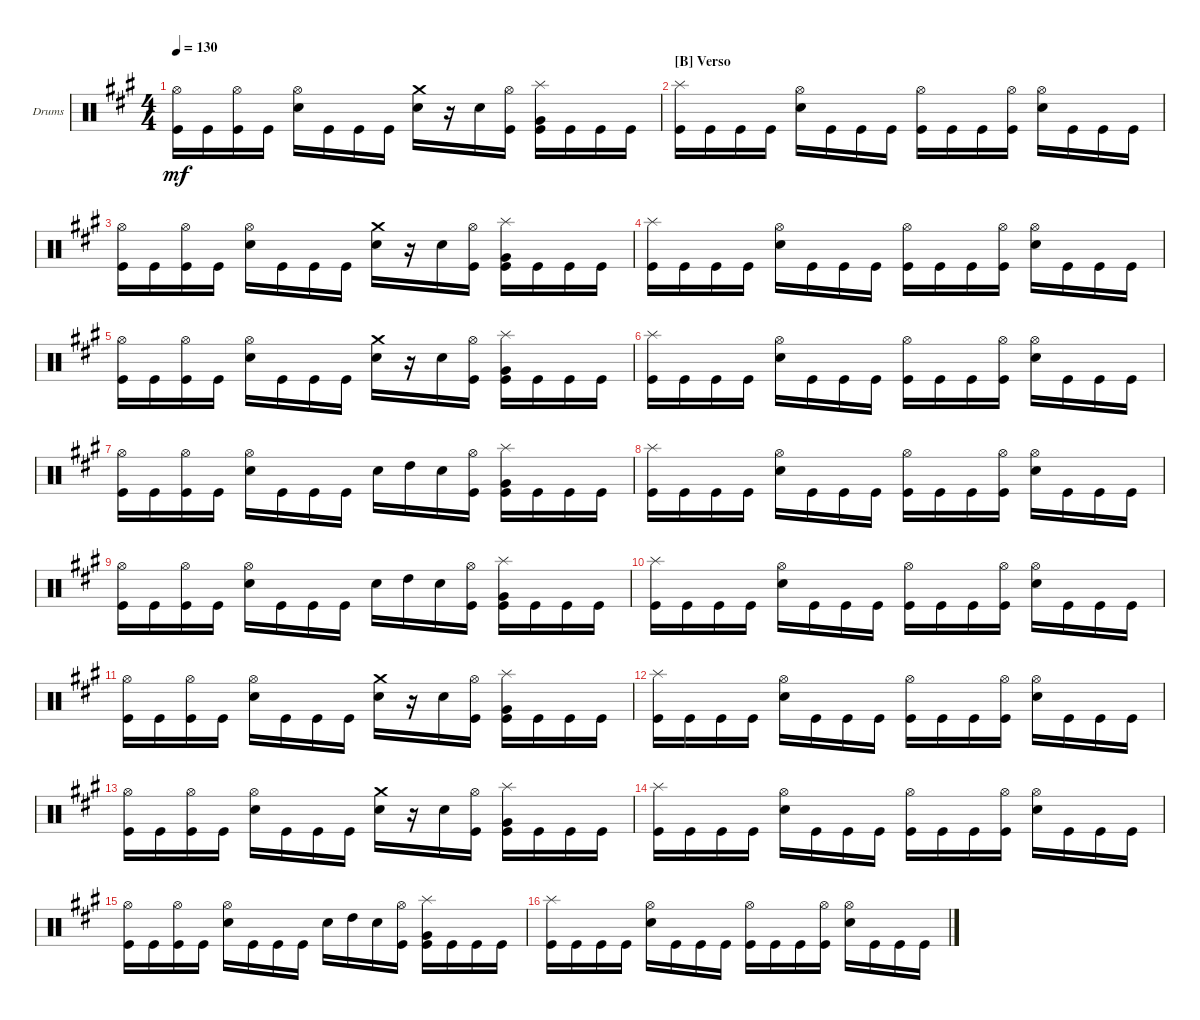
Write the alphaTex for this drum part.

\defaultSystemsLayout 4
\bracketExtendMode groupsimilarinstruments
\firstSystemTrackNameOrientation horizontal
\otherSystemsTrackNameOrientation horizontal
\track ("Bateria" "Drums") {instrument percussion}
\staff {score}
\articulation defaults
\ts (4 4)
\tempo 130
\clef neutral
\ks a
("Kick (hit)" "Hi-Hat (open)").16{dy mf} "Kick (hit)".16 ("Kick (hit)" "Hi-Hat (open)").16 "Kick (hit)".16 ("Snare (hit) 2" "Hi-Hat (open)").16 "Kick (hit)".16 "Kick (hit)".16 "Kick (hit)".16 ("Snare (hit) 2" "Crash medium (hit)").16 r.16 "Snare (hit) 2".16 ("Kick (hit)" "Hi-Hat (open)").16 ("Very Low Tom (hit)" "Splash (hit)" "Kick (hit)").16 "Kick (hit)".16 "Kick (hit)".16 "Kick (hit)".16 |
\section ("B" "Verso")
("Kick (hit)" "Splash (hit)").16 "Kick (hit)".16 "Kick (hit)".16 "Kick (hit)".16 ("Snare (hit) 2" "Hi-Hat (open)").16 "Kick (hit)".16 "Kick (hit)".16 "Kick (hit)".16 ("Kick (hit)" "Hi-Hat (open)").16 "Kick (hit)".16 "Kick (hit)".16 ("Kick (hit)" "Hi-Hat (open)").16 ("Snare (hit) 2" "Hi-Hat (open)").16 "Kick (hit)".16 "Kick (hit)".16 "Kick (hit)".16 |
("Kick (hit)" "Hi-Hat (open)").16 "Kick (hit)".16 ("Kick (hit)" "Hi-Hat (open)").16 "Kick (hit)".16 ("Snare (hit) 2" "Hi-Hat (open)").16 "Kick (hit)".16 "Kick (hit)".16 "Kick (hit)".16 ("Snare (hit) 2" "Crash medium (hit)").16 r.16 "Snare (hit) 2".16 ("Kick (hit)" "Hi-Hat (open)").16 ("Very Low Tom (hit)" "Splash (hit)" "Kick (hit)").16 "Kick (hit)".16 "Kick (hit)".16 "Kick (hit)".16 |
("Kick (hit)" "Splash (hit)").16 "Kick (hit)".16 "Kick (hit)".16 "Kick (hit)".16 ("Snare (hit) 2" "Hi-Hat (open)").16 "Kick (hit)".16 "Kick (hit)".16 "Kick (hit)".16 ("Kick (hit)" "Hi-Hat (open)").16 "Kick (hit)".16 "Kick (hit)".16 ("Kick (hit)" "Hi-Hat (open)").16 ("Snare (hit) 2" "Hi-Hat (open)").16 "Kick (hit)".16 "Kick (hit)".16 "Kick (hit)".16 |
("Kick (hit)" "Hi-Hat (open)").16 "Kick (hit)".16 ("Kick (hit)" "Hi-Hat (open)").16 "Kick (hit)".16 ("Snare (hit) 2" "Hi-Hat (open)").16 "Kick (hit)".16 "Kick (hit)".16 "Kick (hit)".16 ("Snare (hit) 2" "Crash medium (hit)").16 r.16 "Snare (hit) 2".16 ("Kick (hit)" "Hi-Hat (open)").16 ("Very Low Tom (hit)" "Splash (hit)" "Kick (hit)").16 "Kick (hit)".16 "Kick (hit)".16 "Kick (hit)".16 |
("Kick (hit)" "Splash (hit)").16 "Kick (hit)".16 "Kick (hit)".16 "Kick (hit)".16 ("Snare (hit) 2" "Hi-Hat (open)").16 "Kick (hit)".16 "Kick (hit)".16 "Kick (hit)".16 ("Kick (hit)" "Hi-Hat (open)").16 "Kick (hit)".16 "Kick (hit)".16 ("Kick (hit)" "Hi-Hat (open)").16 ("Snare (hit) 2" "Hi-Hat (open)").16 "Kick (hit)".16 "Kick (hit)".16 "Kick (hit)".16 |
("Kick (hit)" "Hi-Hat (open)").16 "Kick (hit)".16 ("Kick (hit)" "Hi-Hat (open)").16 "Kick (hit)".16 ("Snare (hit) 2" "Hi-Hat (open)").16 "Kick (hit)".16 "Kick (hit)".16 "Kick (hit)".16 "Snare (hit) 2".16 "High Tom (hit)".16 "Snare (hit) 2".16 ("Kick (hit)" "Hi-Hat (open)").16 ("Very Low Tom (hit)" "Splash (hit)" "Kick (hit)").16 "Kick (hit)".16 "Kick (hit)".16 "Kick (hit)".16 |
("Kick (hit)" "Splash (hit)").16 "Kick (hit)".16 "Kick (hit)".16 "Kick (hit)".16 ("Snare (hit) 2" "Hi-Hat (open)").16 "Kick (hit)".16 "Kick (hit)".16 "Kick (hit)".16 ("Kick (hit)" "Hi-Hat (open)").16 "Kick (hit)".16 "Kick (hit)".16 ("Kick (hit)" "Hi-Hat (open)").16 ("Snare (hit) 2" "Hi-Hat (open)").16 "Kick (hit)".16 "Kick (hit)".16 "Kick (hit)".16 |
("Kick (hit)" "Hi-Hat (open)").16 "Kick (hit)".16 ("Kick (hit)" "Hi-Hat (open)").16 "Kick (hit)".16 ("Snare (hit) 2" "Hi-Hat (open)").16 "Kick (hit)".16 "Kick (hit)".16 "Kick (hit)".16 "Snare (hit) 2".16 "High Tom (hit)".16 "Snare (hit) 2".16 ("Kick (hit)" "Hi-Hat (open)").16 ("Very Low Tom (hit)" "Splash (hit)" "Kick (hit)").16 "Kick (hit)".16 "Kick (hit)".16 "Kick (hit)".16 |
("Kick (hit)" "Splash (hit)").16 "Kick (hit)".16 "Kick (hit)".16 "Kick (hit)".16 ("Snare (hit) 2" "Hi-Hat (open)").16 "Kick (hit)".16 "Kick (hit)".16 "Kick (hit)".16 ("Kick (hit)" "Hi-Hat (open)").16 "Kick (hit)".16 "Kick (hit)".16 ("Kick (hit)" "Hi-Hat (open)").16 ("Snare (hit) 2" "Hi-Hat (open)").16 "Kick (hit)".16 "Kick (hit)".16 "Kick (hit)".16 |
("Kick (hit)" "Hi-Hat (open)").16 "Kick (hit)".16 ("Kick (hit)" "Hi-Hat (open)").16 "Kick (hit)".16 ("Snare (hit) 2" "Hi-Hat (open)").16 "Kick (hit)".16 "Kick (hit)".16 "Kick (hit)".16 ("Snare (hit) 2" "Crash medium (hit)").16 r.16 "Snare (hit) 2".16 ("Kick (hit)" "Hi-Hat (open)").16 ("Very Low Tom (hit)" "Splash (hit)" "Kick (hit)").16 "Kick (hit)".16 "Kick (hit)".16 "Kick (hit)".16 |
("Kick (hit)" "Splash (hit)").16 "Kick (hit)".16 "Kick (hit)".16 "Kick (hit)".16 ("Snare (hit) 2" "Hi-Hat (open)").16 "Kick (hit)".16 "Kick (hit)".16 "Kick (hit)".16 ("Kick (hit)" "Hi-Hat (open)").16 "Kick (hit)".16 "Kick (hit)".16 ("Kick (hit)" "Hi-Hat (open)").16 ("Snare (hit) 2" "Hi-Hat (open)").16 "Kick (hit)".16 "Kick (hit)".16 "Kick (hit)".16 |
("Kick (hit)" "Hi-Hat (open)").16 "Kick (hit)".16 ("Kick (hit)" "Hi-Hat (open)").16 "Kick (hit)".16 ("Snare (hit) 2" "Hi-Hat (open)").16 "Kick (hit)".16 "Kick (hit)".16 "Kick (hit)".16 ("Snare (hit) 2" "Crash medium (hit)").16 r.16 "Snare (hit) 2".16 ("Kick (hit)" "Hi-Hat (open)").16 ("Very Low Tom (hit)" "Splash (hit)" "Kick (hit)").16 "Kick (hit)".16 "Kick (hit)".16 "Kick (hit)".16 |
("Kick (hit)" "Splash (hit)").16 "Kick (hit)".16 "Kick (hit)".16 "Kick (hit)".16 ("Snare (hit) 2" "Hi-Hat (open)").16 "Kick (hit)".16 "Kick (hit)".16 "Kick (hit)".16 ("Kick (hit)" "Hi-Hat (open)").16 "Kick (hit)".16 "Kick (hit)".16 ("Kick (hit)" "Hi-Hat (open)").16 ("Snare (hit) 2" "Hi-Hat (open)").16 "Kick (hit)".16 "Kick (hit)".16 "Kick (hit)".16 |
("Kick (hit)" "Hi-Hat (open)").16 "Kick (hit)".16 ("Kick (hit)" "Hi-Hat (open)").16 "Kick (hit)".16 ("Snare (hit) 2" "Hi-Hat (open)").16 "Kick (hit)".16 "Kick (hit)".16 "Kick (hit)".16 "Snare (hit) 2".16 "High Tom (hit)".16 "Snare (hit) 2".16 ("Kick (hit)" "Hi-Hat (open)").16 ("Very Low Tom (hit)" "Splash (hit)" "Kick (hit)").16 "Kick (hit)".16 "Kick (hit)".16 "Kick (hit)".16 |
("Kick (hit)" "Splash (hit)").16 "Kick (hit)".16 "Kick (hit)".16 "Kick (hit)".16 ("Snare (hit) 2" "Hi-Hat (open)").16 "Kick (hit)".16 "Kick (hit)".16 "Kick (hit)".16 ("Kick (hit)" "Hi-Hat (open)").16 "Kick (hit)".16 "Kick (hit)".16 ("Kick (hit)" "Hi-Hat (open)").16 ("Snare (hit) 2" "Hi-Hat (open)").16 "Kick (hit)".16 "Kick (hit)".16 "Kick (hit)".16
